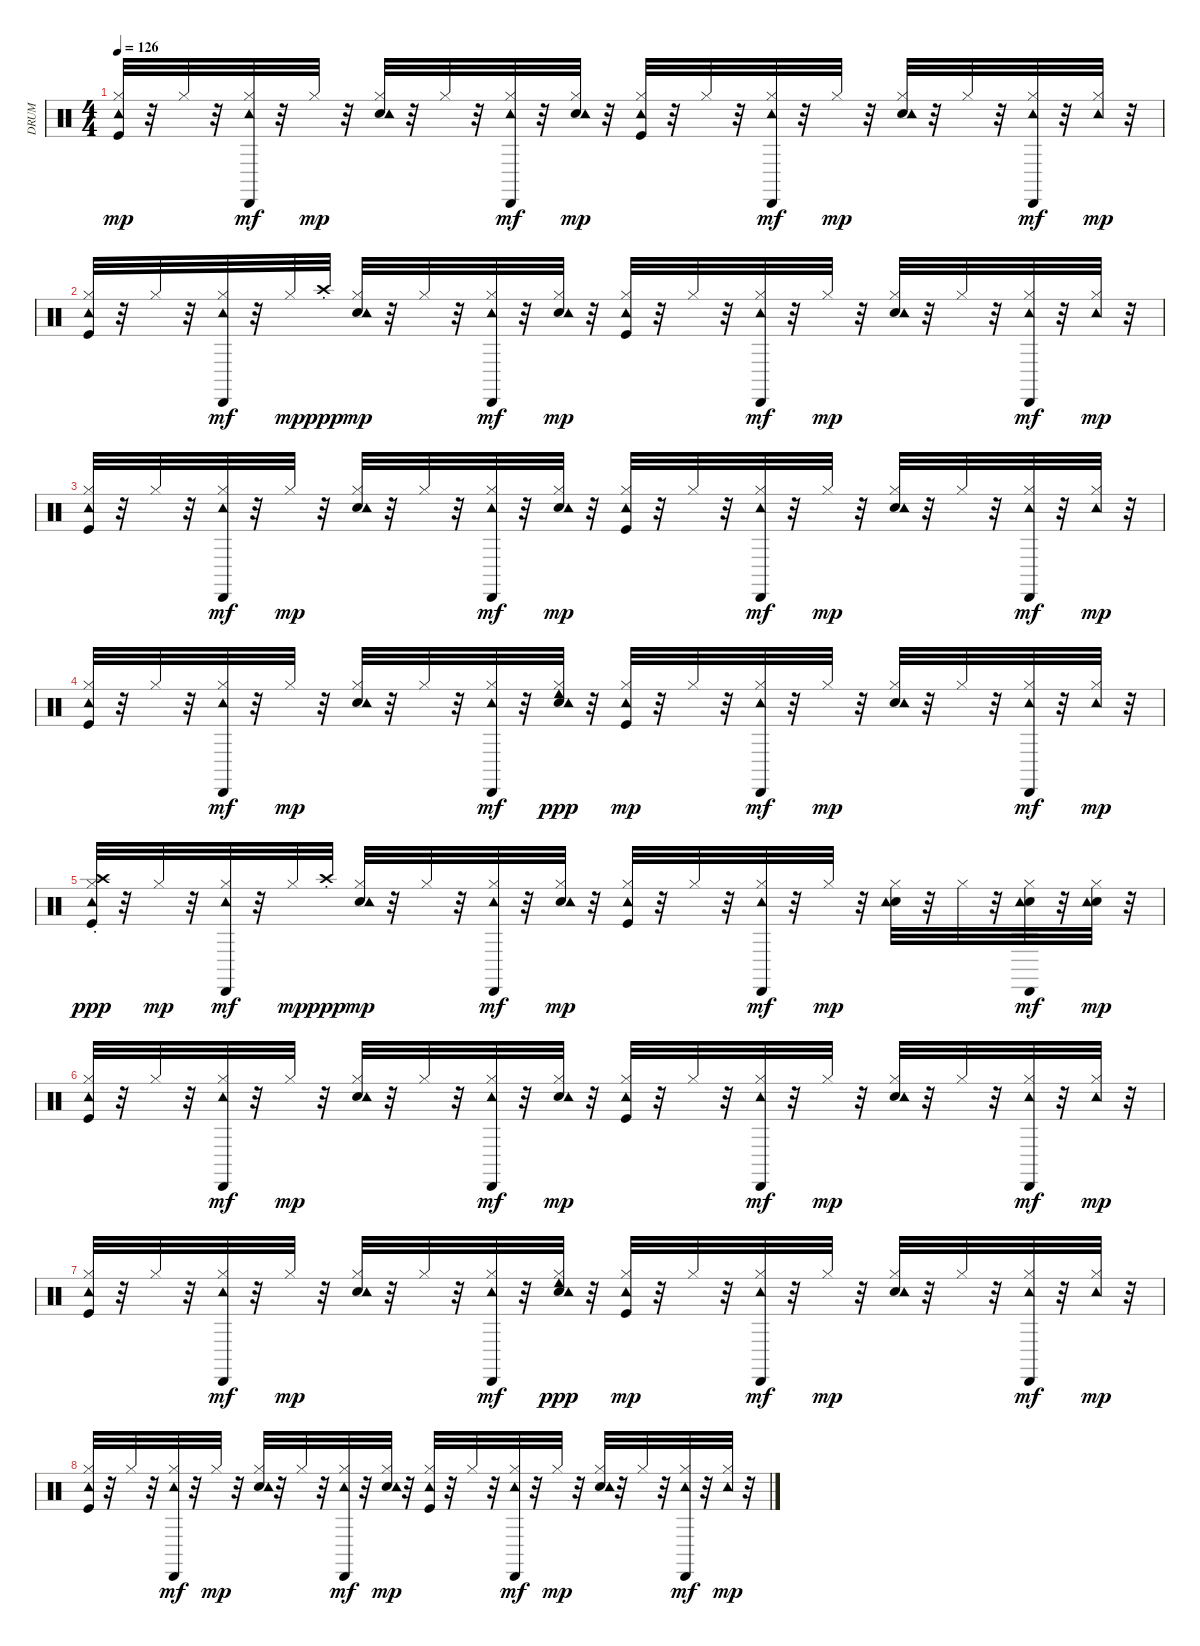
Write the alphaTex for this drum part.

\track ("DRUM" "DRUM") {instrument percussion}
\staff {score}
\articulation defaults
\ts (4 4)
\tempo 126
\clef neutral
\ks c
("Kick (hit)" "Hi-Hat (closed)" "Tambourine (hit)").32{dy mp} r.32 "Hi-Hat (closed)".32 r.32 ("Hi-Hat (closed)" "Tambourine (hit)" "Cabasa (hit)").32{dy mf} r.32 "Hi-Hat (closed)".32{dy mp} r.32 ("Snare (hit) 2" "Hi-Hat (closed)" "Tambourine (hit)").32 r.32 "Hi-Hat (closed)".32 r.32 ("Hi-Hat (closed)" "Tambourine (hit)" "Cabasa (hit)").32{dy mf} r.32 ("Snare (hit) 2" "Hi-Hat (closed)" "Tambourine (hit)").32{dy mp} r.32 ("Kick (hit)" "Hi-Hat (closed)" "Tambourine (hit)").32 r.32 "Hi-Hat (closed)".32 r.32 ("Hi-Hat (closed)" "Tambourine (hit)" "Cabasa (hit)").32{dy mf} r.32 "Hi-Hat (closed)".32{dy mp} r.32 ("Snare (hit) 2" "Hi-Hat (closed)" "Tambourine (hit)").32 r.32 "Hi-Hat (closed)".32 r.32 ("Hi-Hat (closed)" "Tambourine (hit)" "Cabasa (hit)").32{dy mf} r.32 ("Hi-Hat (closed)" "Tambourine (hit)").32{dy mp} r.32 |
("Kick (hit)" "Hi-Hat (closed)" "Tambourine (hit)").32 r.32 "Hi-Hat (closed)".32 r.32 ("Hi-Hat (closed)" "Tambourine (hit)" "Cabasa (hit)").32{dy mf} r.32 "Hi-Hat (closed)".32{dy mp} "Crash high (choke)".32{dy ppp} ("Snare (hit) 2" "Hi-Hat (closed)" "Tambourine (hit)").32{dy mp} r.32 "Hi-Hat (closed)".32 r.32 ("Hi-Hat (closed)" "Tambourine (hit)" "Cabasa (hit)").32{dy mf} r.32 ("Snare (hit) 2" "Hi-Hat (closed)" "Tambourine (hit)").32{dy mp} r.32 ("Kick (hit)" "Hi-Hat (closed)" "Tambourine (hit)").32 r.32 "Hi-Hat (closed)".32 r.32 ("Hi-Hat (closed)" "Tambourine (hit)" "Cabasa (hit)").32{dy mf} r.32 "Hi-Hat (closed)".32{dy mp} r.32 ("Snare (hit) 2" "Hi-Hat (closed)" "Tambourine (hit)").32 r.32 "Hi-Hat (closed)".32 r.32 ("Hi-Hat (closed)" "Tambourine (hit)" "Cabasa (hit)").32{dy mf} r.32 ("Hi-Hat (closed)" "Tambourine (hit)").32{dy mp} r.32 |
("Kick (hit)" "Hi-Hat (closed)" "Tambourine (hit)").32 r.32 "Hi-Hat (closed)".32 r.32 ("Hi-Hat (closed)" "Tambourine (hit)" "Cabasa (hit)").32{dy mf} r.32 "Hi-Hat (closed)".32{dy mp} r.32 ("Snare (hit) 2" "Hi-Hat (closed)" "Tambourine (hit)").32 r.32 "Hi-Hat (closed)".32 r.32 ("Hi-Hat (closed)" "Tambourine (hit)" "Cabasa (hit)").32{dy mf} r.32 ("Snare (hit) 2" "Hi-Hat (closed)" "Tambourine (hit)").32{dy mp} r.32 ("Kick (hit)" "Hi-Hat (closed)" "Tambourine (hit)").32 r.32 "Hi-Hat (closed)".32 r.32 ("Hi-Hat (closed)" "Tambourine (hit)" "Cabasa (hit)").32{dy mf} r.32 "Hi-Hat (closed)".32{dy mp} r.32 ("Snare (hit) 2" "Hi-Hat (closed)" "Tambourine (hit)").32 r.32 "Hi-Hat (closed)".32 r.32 ("Hi-Hat (closed)" "Tambourine (hit)" "Cabasa (hit)").32{dy mf} r.32 ("Hi-Hat (closed)" "Tambourine (hit)").32{dy mp} r.32 |
("Kick (hit)" "Hi-Hat (closed)" "Tambourine (hit)").32 r.32 "Hi-Hat (closed)".32 r.32 ("Hi-Hat (closed)" "Tambourine (hit)" "Cabasa (hit)").32{dy mf} r.32 "Hi-Hat (closed)".32{dy mp} r.32 ("Snare (hit) 2" "Hi-Hat (closed)" "Tambourine (hit)").32 r.32 "Hi-Hat (closed)".32 r.32 ("Hi-Hat (closed)" "Tambourine (hit)" "Cabasa (hit)").32{dy mf} r.32 ("Snare (hit) 2" "Hi-Hat (closed)" "Tambourine (hit)" "Cowbell low (hit)").32{dy ppp} r.32 ("Kick (hit)" "Hi-Hat (closed)" "Tambourine (hit)").32{dy mp} r.32 "Hi-Hat (closed)".32 r.32 ("Hi-Hat (closed)" "Tambourine (hit)" "Cabasa (hit)").32{dy mf} r.32 "Hi-Hat (closed)".32{dy mp} r.32 ("Snare (hit) 2" "Hi-Hat (closed)" "Tambourine (hit)").32 r.32 "Hi-Hat (closed)".32 r.32 ("Hi-Hat (closed)" "Tambourine (hit)" "Cabasa (hit)").32{dy mf} r.32 ("Hi-Hat (closed)" "Tambourine (hit)").32{dy mp} r.32 |
("Kick (hit)" "Hi-Hat (closed)" "Tambourine (hit)" "Crash high (choke)").32{dy ppp} r.32 "Hi-Hat (closed)".32{dy mp} r.32 ("Hi-Hat (closed)" "Tambourine (hit)" "Cabasa (hit)").32{dy mf} r.32 "Hi-Hat (closed)".32{dy mp} "Crash high (choke)".32{dy ppp} ("Snare (hit) 2" "Hi-Hat (closed)" "Tambourine (hit)").32{dy mp} r.32 "Hi-Hat (closed)".32 r.32 ("Hi-Hat (closed)" "Tambourine (hit)" "Cabasa (hit)").32{dy mf} r.32 ("Snare (hit) 2" "Hi-Hat (closed)" "Tambourine (hit)").32{dy mp} r.32 ("Kick (hit)" "Hi-Hat (closed)" "Tambourine (hit)").32 r.32 "Hi-Hat (closed)".32 r.32 ("Hi-Hat (closed)" "Tambourine (hit)" "Cabasa (hit)").32{dy mf} r.32 "Hi-Hat (closed)".32{dy mp} r.32 ("Snare (hit) 2" "Hi-Hat (closed)" "Tambourine (hit)").32 r.32 "Hi-Hat (closed)".32 r.32 ("Snare (hit) 2" "Hi-Hat (closed)" "Tambourine (hit)" "Cabasa (hit)").32{dy mf} r.32 ("Snare (hit) 2" "Hi-Hat (closed)" "Tambourine (hit)").32{dy mp} r.32 |
("Kick (hit)" "Hi-Hat (closed)" "Tambourine (hit)").32 r.32 "Hi-Hat (closed)".32 r.32 ("Hi-Hat (closed)" "Tambourine (hit)" "Cabasa (hit)").32{dy mf} r.32 "Hi-Hat (closed)".32{dy mp} r.32 ("Snare (hit) 2" "Hi-Hat (closed)" "Tambourine (hit)").32 r.32 "Hi-Hat (closed)".32 r.32 ("Hi-Hat (closed)" "Tambourine (hit)" "Cabasa (hit)").32{dy mf} r.32 ("Snare (hit) 2" "Hi-Hat (closed)" "Tambourine (hit)").32{dy mp} r.32 ("Kick (hit)" "Hi-Hat (closed)" "Tambourine (hit)").32 r.32 "Hi-Hat (closed)".32 r.32 ("Hi-Hat (closed)" "Tambourine (hit)" "Cabasa (hit)").32{dy mf} r.32 "Hi-Hat (closed)".32{dy mp} r.32 ("Snare (hit) 2" "Hi-Hat (closed)" "Tambourine (hit)").32 r.32 "Hi-Hat (closed)".32 r.32 ("Hi-Hat (closed)" "Tambourine (hit)" "Cabasa (hit)").32{dy mf} r.32 ("Hi-Hat (closed)" "Tambourine (hit)").32{dy mp} r.32 |
("Kick (hit)" "Hi-Hat (closed)" "Tambourine (hit)").32 r.32 "Hi-Hat (closed)".32 r.32 ("Hi-Hat (closed)" "Tambourine (hit)" "Cabasa (hit)").32{dy mf} r.32 "Hi-Hat (closed)".32{dy mp} r.32 ("Snare (hit) 2" "Hi-Hat (closed)" "Tambourine (hit)").32 r.32 "Hi-Hat (closed)".32 r.32 ("Hi-Hat (closed)" "Tambourine (hit)" "Cabasa (hit)").32{dy mf} r.32 ("Snare (hit) 2" "Hi-Hat (closed)" "Tambourine (hit)" "Cowbell low (hit)").32{dy ppp} r.32 ("Kick (hit)" "Hi-Hat (closed)" "Tambourine (hit)").32{dy mp} r.32 "Hi-Hat (closed)".32 r.32 ("Hi-Hat (closed)" "Tambourine (hit)" "Cabasa (hit)").32{dy mf} r.32 "Hi-Hat (closed)".32{dy mp} r.32 ("Snare (hit) 2" "Hi-Hat (closed)" "Tambourine (hit)").32 r.32 "Hi-Hat (closed)".32 r.32 ("Hi-Hat (closed)" "Tambourine (hit)" "Cabasa (hit)").32{dy mf} r.32 ("Hi-Hat (closed)" "Tambourine (hit)").32{dy mp} r.32 |
("Kick (hit)" "Hi-Hat (closed)" "Tambourine (hit)").32 r.32 "Hi-Hat (closed)".32 r.32 ("Hi-Hat (closed)" "Tambourine (hit)" "Cabasa (hit)").32{dy mf} r.32 "Hi-Hat (closed)".32{dy mp} r.32 ("Snare (hit) 2" "Hi-Hat (closed)" "Tambourine (hit)").32 r.32 "Hi-Hat (closed)".32 r.32 ("Hi-Hat (closed)" "Tambourine (hit)" "Cabasa (hit)").32{dy mf} r.32 ("Snare (hit) 2" "Hi-Hat (closed)" "Tambourine (hit)").32{dy mp} r.32 ("Kick (hit)" "Hi-Hat (closed)" "Tambourine (hit)").32 r.32 "Hi-Hat (closed)".32 r.32 ("Hi-Hat (closed)" "Tambourine (hit)" "Cabasa (hit)").32{dy mf} r.32 "Hi-Hat (closed)".32{dy mp} r.32 ("Snare (hit) 2" "Hi-Hat (closed)" "Tambourine (hit)").32 r.32 "Hi-Hat (closed)".32 r.32 ("Hi-Hat (closed)" "Tambourine (hit)" "Cabasa (hit)").32{dy mf} r.32 ("Hi-Hat (closed)" "Tambourine (hit)").32{dy mp} r.32
